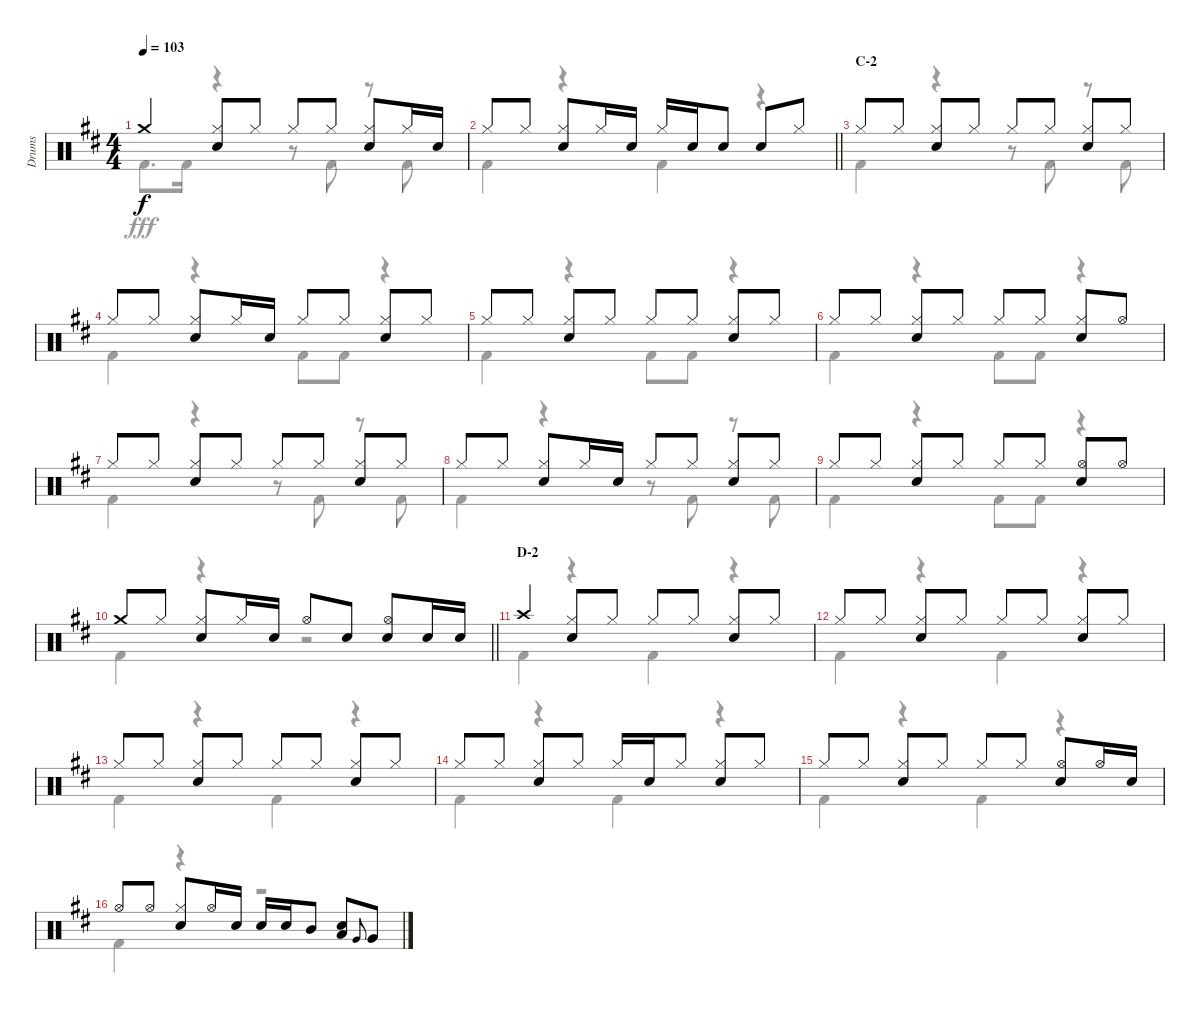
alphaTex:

\track ("Drums" "Drums") {instrument percussion}
\staff {score}
\articulation defaults
\voice
\ts (4 4)
\tempo 103
\clef neutral
\ks d "Crash medium (hit)".4{dy f}
("Hi-Hat (closed)" "Snare (hit) 2").8 "Hi-Hat (closed)".8 "Hi-Hat (closed)".8 "Hi-Hat (closed)".8 ("Hi-Hat (closed)" "Snare (hit) 2").8 "Hi-Hat (closed)".16 "Snare (hit) 2".16 |
\barLineRight lightlight "Hi-Hat (closed)".8 "Hi-Hat (closed)".8
("Hi-Hat (closed)" "Snare (hit) 2").8 "Hi-Hat (closed)".16 "Snare (hit) 2".16 "Hi-Hat (closed)".16 "Snare (hit) 2".16 "Snare (hit) 2".8 "Snare (hit) 2".8 "Hi-Hat (closed)".8 |
\section ("" "C-2")
"Hi-Hat (closed)".8 "Hi-Hat (closed)".8 ("Hi-Hat (closed)" "Snare (hit) 2").8 "Hi-Hat (closed)".8 "Hi-Hat (closed)".8 "Hi-Hat (closed)".8 ("Hi-Hat (closed)" "Snare (hit) 2").8 "Hi-Hat (closed)".8 |
"Hi-Hat (closed)".8 "Hi-Hat (closed)".8 ("Hi-Hat (closed)" "Snare (hit) 2").8 "Hi-Hat (closed)".16 "Snare (hit) 2".16 "Hi-Hat (closed)".8 "Hi-Hat (closed)".8 ("Hi-Hat (closed)" "Snare (hit) 2").8 "Hi-Hat (closed)".8 |
"Hi-Hat (closed)".8 "Hi-Hat (closed)".8 ("Hi-Hat (closed)" "Snare (hit) 2").8 "Hi-Hat (closed)".8 "Hi-Hat (closed)".8 "Hi-Hat (closed)".8 ("Hi-Hat (closed)" "Snare (hit) 2").8 "Hi-Hat (closed)".8 |
"Hi-Hat (closed)".8 "Hi-Hat (closed)".8 ("Hi-Hat (closed)" "Snare (hit) 2").8 "Hi-Hat (closed)".8 "Hi-Hat (closed)".8 "Hi-Hat (closed)".8 ("Hi-Hat (closed)" "Snare (hit) 2").8 "Hi-Hat (open)".8 |
"Hi-Hat (closed)".8 "Hi-Hat (closed)".8 ("Hi-Hat (closed)" "Snare (hit) 2").8 "Hi-Hat (closed)".8 "Hi-Hat (closed)".8 "Hi-Hat (closed)".8 ("Hi-Hat (closed)" "Snare (hit) 2").8 "Hi-Hat (closed)".8 |
"Hi-Hat (closed)".8 "Hi-Hat (closed)".8 ("Hi-Hat (closed)" "Snare (hit) 2").8 "Hi-Hat (closed)".16 "Snare (hit) 2".16 "Hi-Hat (closed)".8 "Hi-Hat (closed)".8 ("Hi-Hat (closed)" "Snare (hit) 2").8 "Hi-Hat (closed)".8 |
"Hi-Hat (closed)".8 "Hi-Hat (closed)".8 ("Hi-Hat (closed)" "Snare (hit) 2").8 "Hi-Hat (closed)".8 "Hi-Hat (closed)".8 "Hi-Hat (closed)".8 ("Hi-Hat (open)" "Snare (hit) 2").8 "Hi-Hat (open)".8 |
\barLineRight lightlight "Crash medium (hit)".8 "Hi-Hat (closed)".8
("Hi-Hat (closed)" "Snare (hit) 2").8 "Hi-Hat (closed)".16 "Snare (hit) 2".16 "Hi-Hat (open)".8 "Snare (hit) 2".8 ("Hi-Hat (open)" "Snare (hit) 2").8 "Snare (hit) 2".16 "Snare (hit) 2".16 |
\section ("" "D-2")
"Crash high (hit)".4 ("Hi-Hat (closed)" "Snare (hit) 2").8 "Hi-Hat (closed)".8 "Hi-Hat (closed)".8 "Hi-Hat (closed)".8 ("Hi-Hat (closed)" "Snare (hit) 2").8 "Hi-Hat (closed)".8 |
"Hi-Hat (closed)".8 "Hi-Hat (closed)".8 ("Hi-Hat (closed)" "Snare (hit) 2").8 "Hi-Hat (closed)".8 "Hi-Hat (closed)".8 "Hi-Hat (closed)".8 ("Hi-Hat (closed)" "Snare (hit) 2").8 "Hi-Hat (closed)".8 |
"Hi-Hat (closed)".8 "Hi-Hat (closed)".8 ("Hi-Hat (closed)" "Snare (hit) 2").8 "Hi-Hat (closed)".8 "Hi-Hat (closed)".8 "Hi-Hat (closed)".8 ("Hi-Hat (closed)" "Snare (hit) 2").8 "Hi-Hat (closed)".8 |
"Hi-Hat (closed)".8 "Hi-Hat (closed)".8 ("Hi-Hat (closed)" "Snare (hit) 2").8 "Hi-Hat (closed)".8 "Hi-Hat (closed)".16 "Snare (hit) 2".16 "Hi-Hat (closed)".8 ("Hi-Hat (closed)" "Snare (hit) 2").8 "Hi-Hat (closed)".8 |
"Hi-Hat (closed)".8 "Hi-Hat (closed)".8 ("Hi-Hat (closed)" "Snare (hit) 2").8 "Hi-Hat (closed)".8 "Hi-Hat (closed)".8 "Hi-Hat (closed)".8 ("Hi-Hat (open)" "Snare (hit) 2").8 "Hi-Hat (open)".16 "Snare (hit) 2".16 |
"Hi-Hat (open)".8 "Hi-Hat (open)".8 ("Hi-Hat (closed)" "Snare (hit) 2").8 "Hi-Hat (open)".16 "Snare (hit) 2".16 "Snare (hit) 2".16 "Snare (hit) 2".16 "Mid Tom (hit)".8 ("Snare (hit) 2" "Low Tom (hit)").8 "Very Low Tom (hit)".8{gr onbeat} "Very Low Tom (hit)".8
\voice
\clef neutral
\ottava regular
\simile none
\ks d "Kick (hit) 2".8{d dy fff} "Kick (hit) 2".16
r.4 r.8 "Kick (hit) 2".8 r.8 "Kick (hit) 2".8 |
\barLineRight lightlight "Kick (hit) 2".4
r.4 "Kick (hit) 2".4 r.4 |
"Kick (hit) 2".4 r.4 r.8 "Kick (hit) 2".8 r.8 "Kick (hit) 2".8 |
"Kick (hit) 2".4 r.4 "Kick (hit) 2".8 "Kick (hit) 2".8 r.4 |
"Kick (hit) 2".4 r.4 "Kick (hit) 2".8 "Kick (hit) 2".8 r.4 |
"Kick (hit) 2".4 r.4 "Kick (hit) 2".8 "Kick (hit) 2".8 r.4 |
"Kick (hit) 2".4 r.4 r.8 "Kick (hit) 2".8 r.8 "Kick (hit) 2".8 |
"Kick (hit) 2".4 r.4 r.8 "Kick (hit) 2".8 r.8 "Kick (hit) 2".8 |
"Kick (hit) 2".4 r.4 "Kick (hit) 2".8 "Kick (hit) 2".8 r.4 |
\barLineRight lightlight "Kick (hit) 2".4
r.4 r.2 |
"Kick (hit) 2".4 r.4 "Kick (hit) 2".4 r.4 |
"Kick (hit) 2".4 r.4 "Kick (hit) 2".4 r.4 |
"Kick (hit) 2".4 r.4 "Kick (hit) 2".4 r.4 |
"Kick (hit) 2".4 r.4 "Kick (hit) 2".4 r.4 |
"Kick (hit) 2".4 r.4 "Kick (hit) 2".4 r.4 |
"Kick (hit) 2".4 r.4 r.2
